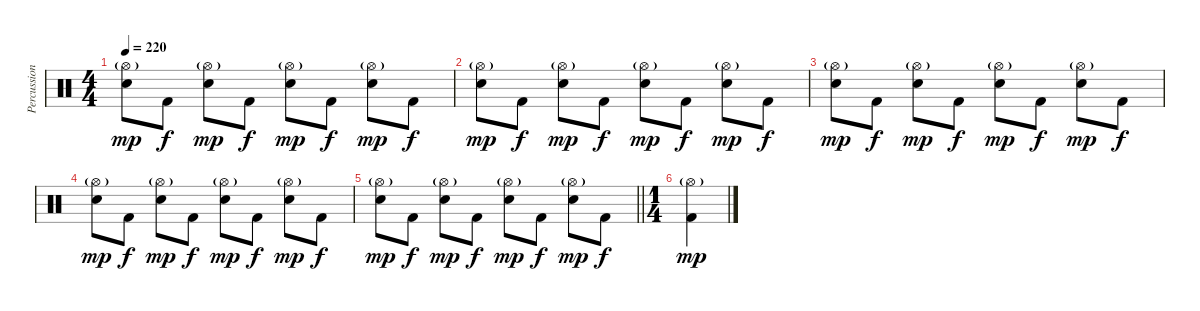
\track ("Percussions" "Percussion") {instrument percussion}
\staff {score}
\articulation defaults
\ts (4 4)
\tempo 220
\clef neutral
\ks c
("Hi-Hat (open)"{g} "Electric Snare (hit)").8{dy mp} "Kick (hit) 2".8{dy f} ("Hi-Hat (open)"{g} "Electric Snare (hit)").8{dy mp} "Kick (hit) 2".8{dy f} ("Hi-Hat (open)"{g} "Electric Snare (hit)").8{dy mp} "Kick (hit) 2".8{dy f} ("Hi-Hat (open)"{g} "Electric Snare (hit)").8{dy mp} "Kick (hit) 2".8{dy f} |
("Hi-Hat (open)"{g} "Electric Snare (hit)").8{dy mp} "Kick (hit) 2".8{dy f} ("Hi-Hat (open)"{g} "Electric Snare (hit)").8{dy mp} "Kick (hit) 2".8{dy f} ("Hi-Hat (open)"{g} "Electric Snare (hit)").8{dy mp} "Kick (hit) 2".8{dy f} ("Hi-Hat (open)"{g} "Electric Snare (hit)").8{dy mp} "Kick (hit) 2".8{dy f} |
("Hi-Hat (open)"{g} "Electric Snare (hit)").8{dy mp} "Kick (hit) 2".8{dy f} ("Hi-Hat (open)"{g} "Electric Snare (hit)").8{dy mp} "Kick (hit) 2".8{dy f} ("Hi-Hat (open)"{g} "Electric Snare (hit)").8{dy mp} "Kick (hit) 2".8{dy f} ("Hi-Hat (open)"{g} "Electric Snare (hit)").8{dy mp} "Kick (hit) 2".8{dy f} |
("Hi-Hat (open)"{g} "Electric Snare (hit)").8{dy mp} "Kick (hit) 2".8{dy f} ("Hi-Hat (open)"{g} "Electric Snare (hit)").8{dy mp} "Kick (hit) 2".8{dy f} ("Hi-Hat (open)"{g} "Electric Snare (hit)").8{dy mp} "Kick (hit) 2".8{dy f} ("Hi-Hat (open)"{g} "Electric Snare (hit)").8{dy mp} "Kick (hit) 2".8{dy f} |
\barLineRight lightlight
("Hi-Hat (open)"{g} "Electric Snare (hit)").8{dy mp} "Kick (hit) 2".8{dy f} ("Hi-Hat (open)"{g} "Electric Snare (hit)").8{dy mp} "Kick (hit) 2".8{dy f} ("Hi-Hat (open)"{g} "Electric Snare (hit)").8{dy mp} "Kick (hit) 2".8{dy f} ("Hi-Hat (open)"{g} "Electric Snare (hit)").8{dy mp} "Kick (hit) 2".8{dy f} |
\ts (1 4)
("Hi-Hat (open)"{g} "Kick (hit) 2").4{dy mp}
